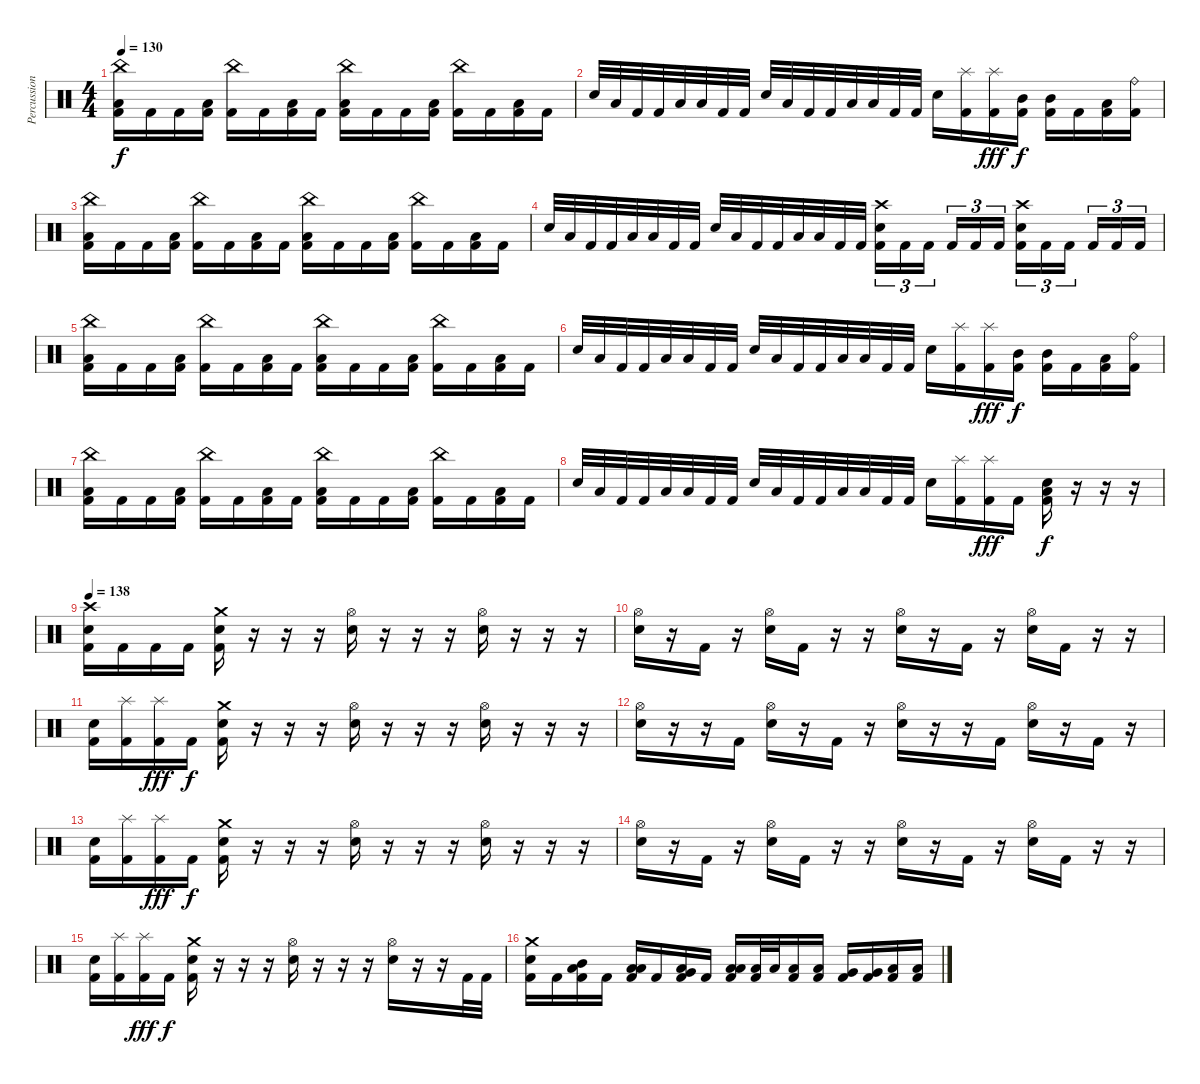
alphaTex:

\track ("Percussion" "Percussion") {instrument percussion}
\staff {score}
\articulation defaults
\ts (4 4)
\tempo 130
\clef neutral
\ks c
("China (hit)" "Low Floor Tom (hit)" "Kick (hit) 2").16{dy f} "Kick (hit) 2".16 "Kick (hit) 2".16 ("Low Floor Tom (hit)" "Kick (hit) 2").16 ("China (hit)" "Kick (hit) 2").16 "Kick (hit) 2".16 ("Low Floor Tom (hit)" "Kick (hit) 2").16 "Kick (hit) 2".16 ("China (hit)" "Low Floor Tom (hit)" "Kick (hit) 2").16 "Kick (hit) 2".16 "Kick (hit) 2".16 ("Low Floor Tom (hit)" "Kick (hit) 2").16 ("China (hit)" "Kick (hit) 2").16 "Kick (hit) 2".16 ("Low Floor Tom (hit)" "Kick (hit) 2").16 "Kick (hit) 2".16 |
"Electric Snare (hit)".32 "Low Floor Tom (hit)".32 "Kick (hit) 2".32 "Kick (hit) 2".32 "Low Tom (hit)".32 "Low Floor Tom (hit)".32 "Kick (hit) 2".32 "Kick (hit) 2".32 "Electric Snare (hit)".32 "Low Floor Tom (hit)".32 "Kick (hit) 2".32 "Kick (hit) 2".32 "Low Tom (hit)".32 "Low Floor Tom (hit)".32 "Kick (hit) 2".32 "Kick (hit) 2".32 "Electric Snare (hit)".16 ("Splash (hit)" "Kick (hit) 2").16 ("Splash (hit)" "Kick (hit) 2").16{dy fff} ("Mid Tom (hit)" "Kick (hit) 2").16{dy f} ("Mid Tom (hit)" "Kick (hit) 2").16 "Kick (hit) 2".16 ("Low Tom (hit)" "Kick (hit) 2").16 ("Ride (bell)" "Kick (hit) 2").16 |
("China (hit)" "Low Floor Tom (hit)" "Kick (hit) 2").16 "Kick (hit) 2".16 "Kick (hit) 2".16 ("Low Floor Tom (hit)" "Kick (hit) 2").16 ("China (hit)" "Kick (hit) 2").16 "Kick (hit) 2".16 ("Low Floor Tom (hit)" "Kick (hit) 2").16 "Kick (hit) 2".16 ("China (hit)" "Low Floor Tom (hit)" "Kick (hit) 2").16 "Kick (hit) 2".16 "Kick (hit) 2".16 ("Low Floor Tom (hit)" "Kick (hit) 2").16 ("China (hit)" "Kick (hit) 2").16 "Kick (hit) 2".16 ("Low Floor Tom (hit)" "Kick (hit) 2").16 "Kick (hit) 2".16 |
"Electric Snare (hit)".32 "Low Floor Tom (hit)".32 "Kick (hit) 2".32 "Kick (hit) 2".32 "Low Tom (hit)".32 "Low Floor Tom (hit)".32 "Kick (hit) 2".32 "Kick (hit) 2".32 "Electric Snare (hit)".32 "Low Floor Tom (hit)".32 "Kick (hit) 2".32 "Kick (hit) 2".32 "Low Tom (hit)".32 "Low Floor Tom (hit)".32 "Kick (hit) 2".32 "Kick (hit) 2".32 ("Crash high (hit)" "Electric Snare (hit)" "Kick (hit) 2").16{tu (3 2)} "Kick (hit) 2".16{tu (3 2)} "Kick (hit) 2".16{tu (3 2) beam splitsecondary} "Kick (hit) 2".16{tu (3 2)} "Kick (hit) 2".16{tu (3 2)} "Kick (hit) 2".16{tu (3 2)} ("Crash high (hit)" "Electric Snare (hit)" "Kick (hit) 2").16{tu (3 2)} "Kick (hit) 2".16{tu (3 2)} "Kick (hit) 2".16{tu (3 2) beam splitsecondary} "Kick (hit) 2".16{tu (3 2)} "Kick (hit) 2".16{tu (3 2)} "Kick (hit) 2".16{tu (3 2)} |
("China (hit)" "Low Floor Tom (hit)" "Kick (hit) 2").16 "Kick (hit) 2".16 "Kick (hit) 2".16 ("Low Floor Tom (hit)" "Kick (hit) 2").16 ("China (hit)" "Kick (hit) 2").16 "Kick (hit) 2".16 ("Low Floor Tom (hit)" "Kick (hit) 2").16 "Kick (hit) 2".16 ("China (hit)" "Low Floor Tom (hit)" "Kick (hit) 2").16 "Kick (hit) 2".16 "Kick (hit) 2".16 ("Low Floor Tom (hit)" "Kick (hit) 2").16 ("China (hit)" "Kick (hit) 2").16 "Kick (hit) 2".16 ("Low Floor Tom (hit)" "Kick (hit) 2").16 "Kick (hit) 2".16 |
"Electric Snare (hit)".32 "Low Floor Tom (hit)".32 "Kick (hit) 2".32 "Kick (hit) 2".32 "Low Tom (hit)".32 "Low Floor Tom (hit)".32 "Kick (hit) 2".32 "Kick (hit) 2".32 "Electric Snare (hit)".32 "Low Floor Tom (hit)".32 "Kick (hit) 2".32 "Kick (hit) 2".32 "Low Tom (hit)".32 "Low Floor Tom (hit)".32 "Kick (hit) 2".32 "Kick (hit) 2".32 "Electric Snare (hit)".16 ("Splash (hit)" "Kick (hit) 2").16 ("Splash (hit)" "Kick (hit) 2").16{dy fff} ("Mid Tom (hit)" "Kick (hit) 2").16{dy f} ("Mid Tom (hit)" "Kick (hit) 2").16 "Kick (hit) 2".16 ("Low Tom (hit)" "Kick (hit) 2").16 ("Ride (bell)" "Kick (hit) 2").16 |
("China (hit)" "Low Floor Tom (hit)" "Kick (hit) 2").16 "Kick (hit) 2".16 "Kick (hit) 2".16 ("Low Floor Tom (hit)" "Kick (hit) 2").16 ("China (hit)" "Kick (hit) 2").16 "Kick (hit) 2".16 ("Low Floor Tom (hit)" "Kick (hit) 2").16 "Kick (hit) 2".16 ("China (hit)" "Low Floor Tom (hit)" "Kick (hit) 2").16 "Kick (hit) 2".16 "Kick (hit) 2".16 ("Low Floor Tom (hit)" "Kick (hit) 2").16 ("China (hit)" "Kick (hit) 2").16 "Kick (hit) 2".16 ("Low Floor Tom (hit)" "Kick (hit) 2").16 "Kick (hit) 2".16 |
"Electric Snare (hit)".32 "Low Floor Tom (hit)".32 "Kick (hit) 2".32 "Kick (hit) 2".32 "Low Tom (hit)".32 "Low Floor Tom (hit)".32 "Kick (hit) 2".32 "Kick (hit) 2".32 "Electric Snare (hit)".32 "Low Floor Tom (hit)".32 "Kick (hit) 2".32 "Kick (hit) 2".32 "Low Tom (hit)".32 "Low Floor Tom (hit)".32 "Kick (hit) 2".32 "Kick (hit) 2".32 "Electric Snare (hit)".16 ("Splash (hit)" "Kick (hit) 2").16 ("Splash (hit)" "Kick (hit) 2").16{dy fff} "Kick (hit) 2".16 ("Electric Snare (hit)" "Low Floor Tom (hit)" "Kick (hit) 2").16{dy f} r.16 r.16 r.16 |
\tempo 138
("Crash high (hit)" "Electric Snare (hit)" "Kick (hit) 2").16 "Kick (hit) 2".16 "Kick (hit) 2".16 "Kick (hit) 2".16 ("Crash medium (hit)" "Electric Snare (hit)" "Kick (hit) 2").16 r.16 r.16 r.16 ("Hi-Hat (open)" "Electric Snare (hit)").16 r.16 r.16 r.16 ("Hi-Hat (open)" "Electric Snare (hit)").16 r.16 r.16 r.16 |
("Hi-Hat (open)" "Electric Snare (hit)").16 r.16 "Kick (hit) 2".16 r.16 ("Hi-Hat (open)" "Electric Snare (hit)").16 "Kick (hit) 2".16 r.16 r.16 ("Hi-Hat (open)" "Electric Snare (hit)").16 r.16 "Kick (hit) 2".16 r.16 ("Hi-Hat (open)" "Electric Snare (hit)").16 "Kick (hit) 2".16 r.16 r.16 |
("Electric Snare (hit)" "Kick (hit) 2").16 ("Splash (hit)" "Kick (hit) 2").16 ("Splash (hit)" "Kick (hit) 2").16{dy fff} "Kick (hit) 2".16{dy f} ("Crash medium (hit)" "Electric Snare (hit)" "Kick (hit) 2").16 r.16 r.16 r.16 ("Hi-Hat (open)" "Electric Snare (hit)").16 r.16 r.16 r.16 ("Hi-Hat (open)" "Electric Snare (hit)").16 r.16 r.16 r.16 |
("Hi-Hat (open)" "Electric Snare (hit)").16 r.16 r.16 "Kick (hit) 2".16 ("Hi-Hat (open)" "Electric Snare (hit)").16 r.16 "Kick (hit) 2".16 r.16 ("Hi-Hat (open)" "Electric Snare (hit)").16 r.16 r.16 "Kick (hit) 2".16 ("Hi-Hat (open)" "Electric Snare (hit)").16 r.16 "Kick (hit) 2".16 r.16 |
("Electric Snare (hit)" "Kick (hit) 2").16 ("Splash (hit)" "Kick (hit) 2").16 ("Splash (hit)" "Kick (hit) 2").16{dy fff} "Kick (hit) 2".16{dy f} ("Crash medium (hit)" "Electric Snare (hit)" "Kick (hit) 2").16 r.16 r.16 r.16 ("Hi-Hat (open)" "Electric Snare (hit)").16 r.16 r.16 r.16 ("Hi-Hat (open)" "Electric Snare (hit)").16 r.16 r.16 r.16 |
("Hi-Hat (open)" "Electric Snare (hit)").16 r.16 "Kick (hit) 2".16 r.16 ("Hi-Hat (open)" "Electric Snare (hit)").16 "Kick (hit) 2".16 r.16 r.16 ("Hi-Hat (open)" "Electric Snare (hit)").16 r.16 "Kick (hit) 2".16 r.16 ("Hi-Hat (open)" "Electric Snare (hit)").16 "Kick (hit) 2".16 r.16 r.16 |
("Electric Snare (hit)" "Kick (hit) 2").16 ("Splash (hit)" "Kick (hit) 2").16 ("Splash (hit)" "Kick (hit) 2").16{dy fff} "Kick (hit) 2".16{dy f} ("Crash medium (hit)" "Electric Snare (hit)" "Kick (hit) 2").16 r.16 r.16 r.16 ("Hi-Hat (open)" "Electric Snare (hit)").16 r.16 r.16 r.16 ("Hi-Hat (open)" "Electric Snare (hit)").16 r.16 r.16 "Kick (hit) 2".32 "Kick (hit) 2".32 |
("Crash medium (hit)" "Electric Snare (hit)" "Kick (hit) 2").16 "Kick (hit) 2".16 ("Mid Tom (hit)" "Low Floor Tom (hit)" "Kick (hit) 2").16 "Kick (hit) 2".16 ("Low Tom (hit)" "Low Floor Tom (hit)" "Kick (hit) 2").16 "Kick (hit) 2".16 ("Very Low Tom (hit)" "Low Floor Tom (hit)" "Kick (hit) 2").16 "Kick (hit) 2".16 ("Low Floor Tom (hit)" "Low Floor Tom (hit)" "Kick (hit) 2").16 ("Low Tom (hit)" "Kick (hit) 2").32 "Low Tom (hit)".32 ("Low Tom (hit)" "Kick (hit) 2").16 ("Low Tom (hit)" "Kick (hit) 2").16 ("Very Low Tom (hit)" "Kick (hit) 2").16 ("Very Low Tom (hit)" "Kick (hit) 2").16 ("Low Floor Tom (hit)" "Kick (hit) 2").16 ("Low Floor Tom (hit)" "Kick (hit) 2").16
